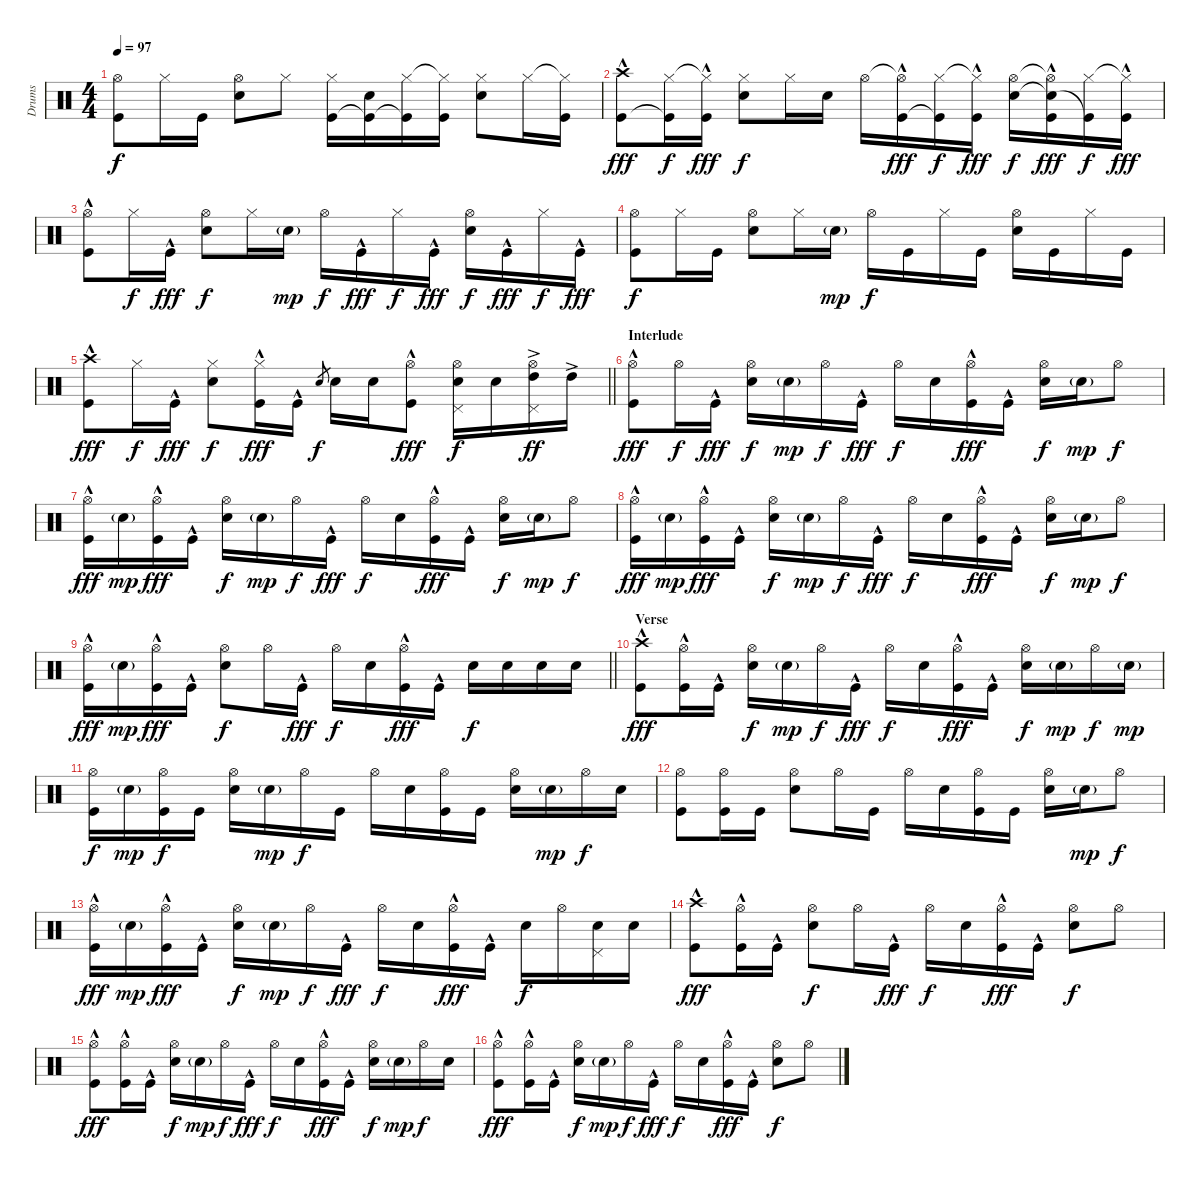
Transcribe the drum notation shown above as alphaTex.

\track ("Drums" "Drums") {instrument percussion}
\staff {score}
\articulation defaults
\ts (4 4)
\tempo 97
\clef neutral
\ks c
("Hi-Hat (open)" "Kick (hit)").8{dy f} "Hi-Hat (closed)".16 "Kick (hit)".16 ("Hi-Hat (open)" "Snare (hit) 2").8 "Hi-Hat (closed)".8 ("Hi-Hat (closed)" "Kick (hit)").16 ("Snare (hit) 2" "Kick (hit)"{t}).16 ("Hi-Hat (closed)" "Kick (hit)"{t}).16 ("Hi-Hat (closed)"{t} "Kick (hit)").16 ("Hi-Hat (closed)" "Snare (hit) 2").8 "Hi-Hat (closed)".16 ("Hi-Hat (closed)"{t} "Kick (hit)").16 |
("Crash high (hit)" "Kick (hit)"{hac}).8{dy fff} ("Hi-Hat (closed)" "Kick (hit)"{t}).16{dy f} ("Hi-Hat (closed)"{t} "Kick (hit)"{hac}).16{dy fff} ("Hi-Hat (closed)" "Snare (hit) 2").8{dy f} "Hi-Hat (closed)".16 "Snare (hit) 2".16 "Hi-Hat (open)".16 ("Hi-Hat (open)"{t} "Kick (hit)"{hac}).16{dy fff} ("Hi-Hat (closed)" "Kick (hit)"{t}).16{dy f} ("Hi-Hat (closed)"{t} "Kick (hit)"{hac}).16{dy fff} ("Hi-Hat (open)" "Snare (hit) 2").16{dy f} ("Hi-Hat (open)"{t} "Snare (hit) 2"{t} "Kick (hit)"{hac}).16{dy fff} ("Hi-Hat (closed)" "Kick (hit)"{t}).16{dy f} ("Hi-Hat (closed)"{t} "Kick (hit)"{hac}).16{dy fff} |
("Hi-Hat (open)" "Kick (hit)"{hac}).8 "Hi-Hat (closed)".16{dy f} "Kick (hit)"{hac}.16{dy fff} ("Hi-Hat (open)" "Snare (hit) 2").8{dy f} "Hi-Hat (closed)".16 "Snare (hit) 2"{g}.16{dy mp} "Hi-Hat (open)".16{dy f} "Kick (hit)"{hac}.16{dy fff} "Hi-Hat (closed)".16{dy f} "Kick (hit)"{hac}.16{dy fff} ("Hi-Hat (open)" "Snare (hit) 2").16{dy f} "Kick (hit)"{hac}.16{dy fff} "Hi-Hat (closed)".16{dy f} "Kick (hit)"{hac}.16{dy fff} |
("Hi-Hat (open)" "Kick (hit)").8{dy f} "Hi-Hat (closed)".16 "Kick (hit)".16 ("Hi-Hat (open)" "Snare (hit) 2").8 "Hi-Hat (closed)".16 "Snare (hit) 2"{g}.16{dy mp} "Hi-Hat (open)".16{dy f} "Kick (hit)".16 "Hi-Hat (closed)".16 "Kick (hit)".16 ("Hi-Hat (open)" "Snare (hit) 2").16 "Kick (hit)".16 "Hi-Hat (closed)".16 "Kick (hit)".16 |
\barLineRight lightlight
("Crash high (hit)" "Kick (hit)"{hac}).8{dy fff} "Hi-Hat (closed)".16{dy f} "Kick (hit)"{hac}.16{dy fff} ("Hi-Hat (closed)" "Snare (hit) 2").8{dy f} ("Hi-Hat (closed)" "Kick (hit)"{hac}).16{dy fff} "Kick (hit)"{hac}.16 "Snare (hit) 2".8{gr dy f} "Snare (hit) 2".16 "Snare (hit) 2".16 ("Hi-Hat (open)" "Kick (hit)"{hac}).8{dy fff} ("Snare (hit) 2" "Pedal Hi-Hat (hit)" "Hi-Hat (open)").16{dy f} "Snare (hit) 2".16 ("High Tom (hit)"{ac} "Pedal Hi-Hat (hit)" "Hi-Hat (open)").16{dy ff} "High Tom (hit)"{ac}.16 |
\section ("" "Interlude")
("Hi-Hat (open)" "Kick (hit)"{hac}).8{dy fff} "Hi-Hat (open)".16{dy f} "Kick (hit)"{hac}.16{dy fff} ("Hi-Hat (open)" "Snare (hit) 2").16{dy f} "Snare (hit) 2"{g}.16{dy mp} "Hi-Hat (open)".16{dy f} "Kick (hit)"{hac}.16{dy fff} "Hi-Hat (open)".16{dy f} "Snare (hit) 2".16 ("Hi-Hat (open)" "Kick (hit)"{hac}).16{dy fff} "Kick (hit)"{hac}.16 ("Hi-Hat (open)" "Snare (hit) 2").16{dy f} "Snare (hit) 2"{g}.16{dy mp} "Hi-Hat (open)".8{dy f} |
("Hi-Hat (open)" "Kick (hit)"{hac}).16{dy fff} "Snare (hit) 2"{g}.16{dy mp} ("Hi-Hat (open)" "Kick (hit)"{hac}).16{dy fff} "Kick (hit)"{hac}.16 ("Hi-Hat (open)" "Snare (hit) 2").16{dy f} "Snare (hit) 2"{g}.16{dy mp} "Hi-Hat (open)".16{dy f} "Kick (hit)"{hac}.16{dy fff} "Hi-Hat (open)".16{dy f} "Snare (hit) 2".16 ("Hi-Hat (open)" "Kick (hit)"{hac}).16{dy fff} "Kick (hit)"{hac}.16 ("Hi-Hat (open)" "Snare (hit) 2").16{dy f} "Snare (hit) 2"{g}.16{dy mp} "Hi-Hat (open)".8{dy f} |
("Hi-Hat (open)" "Kick (hit)"{hac}).16{dy fff} "Snare (hit) 2"{g}.16{dy mp} ("Hi-Hat (open)" "Kick (hit)"{hac}).16{dy fff} "Kick (hit)"{hac}.16 ("Hi-Hat (open)" "Snare (hit) 2").16{dy f} "Snare (hit) 2"{g}.16{dy mp} "Hi-Hat (open)".16{dy f} "Kick (hit)"{hac}.16{dy fff} "Hi-Hat (open)".16{dy f} "Snare (hit) 2".16 ("Hi-Hat (open)" "Kick (hit)"{hac}).16{dy fff} "Kick (hit)"{hac}.16 ("Hi-Hat (open)" "Snare (hit) 2").16{dy f} "Snare (hit) 2"{g}.16{dy mp} "Hi-Hat (open)".8{dy f} |
\barLineRight lightlight
("Hi-Hat (open)" "Kick (hit)"{hac}).16{dy fff} "Snare (hit) 2"{g}.16{dy mp} ("Hi-Hat (open)" "Kick (hit)"{hac}).16{dy fff} "Kick (hit)"{hac}.16 ("Hi-Hat (open)" "Snare (hit) 2").8{dy f} "Hi-Hat (open)".16 "Kick (hit)"{hac}.16{dy fff} "Hi-Hat (open)".16{dy f} "Snare (hit) 2".16 ("Hi-Hat (open)" "Kick (hit)"{hac}).16{dy fff} "Kick (hit)"{hac}.16 "Snare (hit) 2".16{dy f} "Snare (hit) 2".16 "Snare (hit) 2".16 "Snare (hit) 2".16 |
\section ("" "Verse")
("Crash high (hit)" "Kick (hit)"{hac}).8{dy fff} ("Hi-Hat (open)" "Kick (hit)"{hac}).16 "Kick (hit)"{hac}.16 ("Hi-Hat (open)" "Snare (hit) 2").16{dy f} "Snare (hit) 2"{g}.16{dy mp} "Hi-Hat (open)".16{dy f} "Kick (hit)"{hac}.16{dy fff} "Hi-Hat (open)".16{dy f} "Snare (hit) 2".16 ("Hi-Hat (open)" "Kick (hit)"{hac}).16{dy fff} "Kick (hit)"{hac}.16 ("Hi-Hat (open)" "Snare (hit) 2").16{dy f} "Snare (hit) 2"{g}.16{dy mp} "Hi-Hat (open)".16{dy f} "Snare (hit) 2"{g}.16{dy mp} |
("Hi-Hat (open)" "Kick (hit)").16{dy f} "Snare (hit) 2"{g}.16{dy mp} ("Hi-Hat (open)" "Kick (hit)").16{dy f} "Kick (hit)".16 ("Hi-Hat (open)" "Snare (hit) 2").16 "Snare (hit) 2"{g}.16{dy mp} "Hi-Hat (open)".16{dy f} "Kick (hit)".16 "Hi-Hat (open)".16 "Snare (hit) 2".16 ("Hi-Hat (open)" "Kick (hit)").16 "Kick (hit)".16 ("Hi-Hat (open)" "Snare (hit) 2").16 "Snare (hit) 2"{g}.16{dy mp} "Hi-Hat (open)".16{dy f} "Snare (hit) 2".16 |
("Hi-Hat (open)" "Kick (hit)").8 ("Hi-Hat (open)" "Kick (hit)").16 "Kick (hit)".16 ("Hi-Hat (open)" "Snare (hit) 2").8 "Hi-Hat (open)".16 "Kick (hit)".16 "Hi-Hat (open)".16 "Snare (hit) 2".16 ("Hi-Hat (open)" "Kick (hit)").16 "Kick (hit)".16 ("Hi-Hat (open)" "Snare (hit) 2").16 "Snare (hit) 2"{g}.16{dy mp} "Hi-Hat (open)".8{dy f} |
("Hi-Hat (open)" "Kick (hit)"{hac}).16{dy fff} "Snare (hit) 2"{g}.16{dy mp} ("Hi-Hat (open)" "Kick (hit)"{hac}).16{dy fff} "Kick (hit)"{hac}.16 ("Hi-Hat (open)" "Snare (hit) 2").16{dy f} "Snare (hit) 2"{g}.16{dy mp} "Hi-Hat (open)".16{dy f} "Kick (hit)"{hac}.16{dy fff} "Hi-Hat (open)".16{dy f} "Snare (hit) 2".16 ("Hi-Hat (open)" "Kick (hit)"{hac}).16{dy fff} "Kick (hit)"{hac}.16 "Snare (hit) 2".16{dy f} "Hi-Hat (open)".16 ("Snare (hit) 2" "Pedal Hi-Hat (hit)").16 "Snare (hit) 2".16 |
("Crash high (hit)" "Kick (hit)"{hac}).8{dy fff} ("Hi-Hat (open)" "Kick (hit)"{hac}).16 "Kick (hit)"{hac}.16 ("Hi-Hat (open)" "Snare (hit) 2").8{dy f} "Hi-Hat (open)".16 "Kick (hit)"{hac}.16{dy fff} "Hi-Hat (open)".16{dy f} "Snare (hit) 2".16 ("Hi-Hat (open)" "Kick (hit)"{hac}).16{dy fff} "Kick (hit)"{hac}.16 ("Hi-Hat (open)" "Snare (hit) 2").8{dy f} "Hi-Hat (open)".8 |
("Hi-Hat (open)" "Kick (hit)"{hac}).8{dy fff} ("Hi-Hat (open)" "Kick (hit)"{hac}).16 "Kick (hit)"{hac}.16 ("Hi-Hat (open)" "Snare (hit) 2").16{dy f} "Snare (hit) 2"{g}.16{dy mp} "Hi-Hat (open)".16{dy f} "Kick (hit)"{hac}.16{dy fff} "Hi-Hat (open)".16{dy f} "Snare (hit) 2".16 ("Hi-Hat (open)" "Kick (hit)"{hac}).16{dy fff} "Kick (hit)"{hac}.16 ("Hi-Hat (open)" "Snare (hit) 2").16{dy f} "Snare (hit) 2"{g}.16{dy mp} "Hi-Hat (open)".16{dy f} "Snare (hit) 2".16 |
("Hi-Hat (open)" "Kick (hit)"{hac}).8{dy fff} ("Hi-Hat (open)" "Kick (hit)"{hac}).16 "Kick (hit)"{hac}.16 ("Hi-Hat (open)" "Snare (hit) 2").16{dy f} "Snare (hit) 2"{g}.16{dy mp} "Hi-Hat (open)".16{dy f} "Kick (hit)"{hac}.16{dy fff} "Hi-Hat (open)".16{dy f} "Snare (hit) 2".16 ("Hi-Hat (open)" "Kick (hit)"{hac}).16{dy fff} "Kick (hit)"{hac}.16 ("Hi-Hat (open)" "Snare (hit) 2").8{dy f} "Hi-Hat (open)".8
